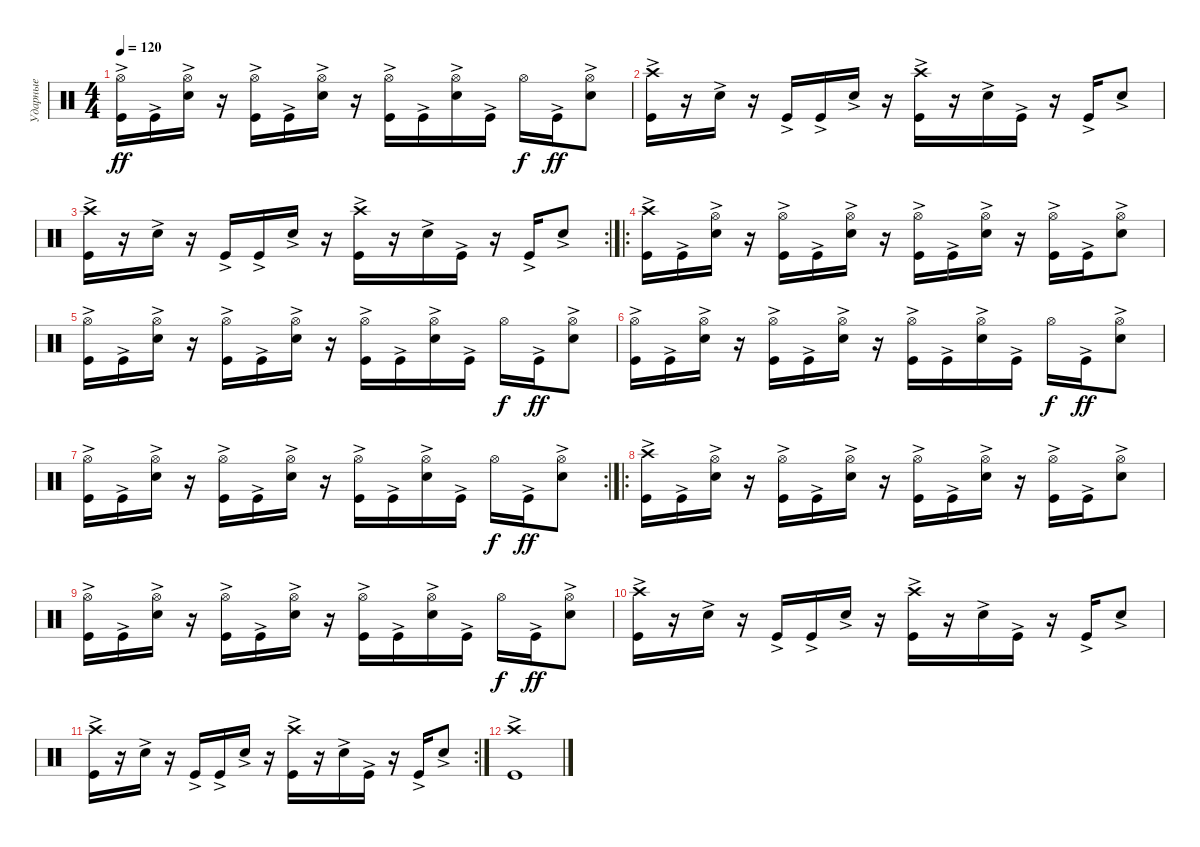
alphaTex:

\track ("Ударные" "Ударные") {instrument percussion}
\staff {score}
\articulation defaults
\ts (4 4)
\tempo 120
\clef neutral
\ks c
("Hi-Hat (open)" "Kick (hit)"{ac}).16{dy ff} "Kick (hit)"{ac}.16 ("Hi-Hat (open)" "Snare (hit) 2"{ac}).16 r.16 ("Hi-Hat (open)" "Kick (hit)"{ac}).16 "Kick (hit)"{ac}.16 ("Hi-Hat (open)" "Snare (hit) 2"{ac}).16 r.16 ("Hi-Hat (open)" "Kick (hit)"{ac}).16 "Kick (hit)"{ac}.16 ("Hi-Hat (open)" "Snare (hit) 2"{ac}).16 "Kick (hit)"{ac}.16 "Hi-Hat (open)".16{dy f} "Kick (hit)"{ac}.16{dy ff} ("Hi-Hat (open)" "Snare (hit) 2"{ac}).8 |
("Crash high (hit)" "Kick (hit)"{ac}).16 r.16 "Snare (hit) 2"{ac}.16 r.16 "Kick (hit)"{ac}.16 "Kick (hit)"{ac}.16 "Snare (hit) 2"{ac}.16 r.16 ("Crash high (hit)" "Kick (hit)"{ac}).16 r.16 "Snare (hit) 2"{ac}.16 "Kick (hit)"{ac}.16 r.16 "Kick (hit)"{ac}.16 "Snare (hit) 2"{ac}.8 |
\rc 2
("Crash high (hit)" "Kick (hit)"{ac}).16 r.16 "Snare (hit) 2"{ac}.16 r.16 "Kick (hit)"{ac}.16 "Kick (hit)"{ac}.16 "Snare (hit) 2"{ac}.16 r.16 ("Crash high (hit)" "Kick (hit)"{ac}).16 r.16 "Snare (hit) 2"{ac}.16 "Kick (hit)"{ac}.16 r.16 "Kick (hit)"{ac}.16 "Snare (hit) 2"{ac}.8 |
\ro
("Crash high (hit)" "Kick (hit)"{ac}).16 "Kick (hit)"{ac}.16 ("Hi-Hat (open)" "Snare (hit) 2"{ac}).16 r.16 ("Hi-Hat (open)" "Kick (hit)"{ac}).16 "Kick (hit)"{ac}.16 ("Hi-Hat (open)" "Snare (hit) 2"{ac}).16 r.16 ("Hi-Hat (open)" "Kick (hit)"{ac}).16 "Kick (hit)"{ac}.16 ("Hi-Hat (open)" "Snare (hit) 2"{ac}).16 r.16 ("Hi-Hat (open)" "Kick (hit)"{ac}).16 "Kick (hit)"{ac}.16 ("Hi-Hat (open)" "Snare (hit) 2"{ac}).8 |
("Hi-Hat (open)" "Kick (hit)"{ac}).16 "Kick (hit)"{ac}.16 ("Hi-Hat (open)" "Snare (hit) 2"{ac}).16 r.16 ("Hi-Hat (open)" "Kick (hit)"{ac}).16 "Kick (hit)"{ac}.16 ("Hi-Hat (open)" "Snare (hit) 2"{ac}).16 r.16 ("Hi-Hat (open)" "Kick (hit)"{ac}).16 "Kick (hit)"{ac}.16 ("Hi-Hat (open)" "Snare (hit) 2"{ac}).16 "Kick (hit)"{ac}.16 "Hi-Hat (open)".16{dy f} "Kick (hit)"{ac}.16{dy ff} ("Hi-Hat (open)" "Snare (hit) 2"{ac}).8 |
("Hi-Hat (open)" "Kick (hit)"{ac}).16 "Kick (hit)"{ac}.16 ("Hi-Hat (open)" "Snare (hit) 2"{ac}).16 r.16 ("Hi-Hat (open)" "Kick (hit)"{ac}).16 "Kick (hit)"{ac}.16 ("Hi-Hat (open)" "Snare (hit) 2"{ac}).16 r.16 ("Hi-Hat (open)" "Kick (hit)"{ac}).16 "Kick (hit)"{ac}.16 ("Hi-Hat (open)" "Snare (hit) 2"{ac}).16 "Kick (hit)"{ac}.16 "Hi-Hat (open)".16{dy f} "Kick (hit)"{ac}.16{dy ff} ("Hi-Hat (open)" "Snare (hit) 2"{ac}).8 |
\rc 2
("Hi-Hat (open)" "Kick (hit)"{ac}).16 "Kick (hit)"{ac}.16 ("Hi-Hat (open)" "Snare (hit) 2"{ac}).16 r.16 ("Hi-Hat (open)" "Kick (hit)"{ac}).16 "Kick (hit)"{ac}.16 ("Hi-Hat (open)" "Snare (hit) 2"{ac}).16 r.16 ("Hi-Hat (open)" "Kick (hit)"{ac}).16 "Kick (hit)"{ac}.16 ("Hi-Hat (open)" "Snare (hit) 2"{ac}).16 "Kick (hit)"{ac}.16 "Hi-Hat (open)".16{dy f} "Kick (hit)"{ac}.16{dy ff} ("Hi-Hat (open)" "Snare (hit) 2"{ac}).8 |
\ro
("Crash high (hit)" "Kick (hit)"{ac}).16 "Kick (hit)"{ac}.16 ("Hi-Hat (open)" "Snare (hit) 2"{ac}).16 r.16 ("Hi-Hat (open)" "Kick (hit)"{ac}).16 "Kick (hit)"{ac}.16 ("Hi-Hat (open)" "Snare (hit) 2"{ac}).16 r.16 ("Hi-Hat (open)" "Kick (hit)"{ac}).16 "Kick (hit)"{ac}.16 ("Hi-Hat (open)" "Snare (hit) 2"{ac}).16 r.16 ("Hi-Hat (open)" "Kick (hit)"{ac}).16 "Kick (hit)"{ac}.16 ("Hi-Hat (open)" "Snare (hit) 2"{ac}).8 |
("Hi-Hat (open)" "Kick (hit)"{ac}).16 "Kick (hit)"{ac}.16 ("Hi-Hat (open)" "Snare (hit) 2"{ac}).16 r.16 ("Hi-Hat (open)" "Kick (hit)"{ac}).16 "Kick (hit)"{ac}.16 ("Hi-Hat (open)" "Snare (hit) 2"{ac}).16 r.16 ("Hi-Hat (open)" "Kick (hit)"{ac}).16 "Kick (hit)"{ac}.16 ("Hi-Hat (open)" "Snare (hit) 2"{ac}).16 "Kick (hit)"{ac}.16 "Hi-Hat (open)".16{dy f} "Kick (hit)"{ac}.16{dy ff} ("Hi-Hat (open)" "Snare (hit) 2"{ac}).8 |
("Crash high (hit)" "Kick (hit)"{ac}).16 r.16 "Snare (hit) 2"{ac}.16 r.16 "Kick (hit)"{ac}.16 "Kick (hit)"{ac}.16 "Snare (hit) 2"{ac}.16 r.16 ("Crash high (hit)" "Kick (hit)"{ac}).16 r.16 "Snare (hit) 2"{ac}.16 "Kick (hit)"{ac}.16 r.16 "Kick (hit)"{ac}.16 "Snare (hit) 2"{ac}.8 |
\rc 2
("Crash high (hit)" "Kick (hit)"{ac}).16 r.16 "Snare (hit) 2"{ac}.16 r.16 "Kick (hit)"{ac}.16 "Kick (hit)"{ac}.16 "Snare (hit) 2"{ac}.16 r.16 ("Crash high (hit)" "Kick (hit)"{ac}).16 r.16 "Snare (hit) 2"{ac}.16 "Kick (hit)"{ac}.16 r.16 "Kick (hit)"{ac}.16 "Snare (hit) 2"{ac}.8 |
("Crash high (hit)" "Kick (hit)"{ac}).1
